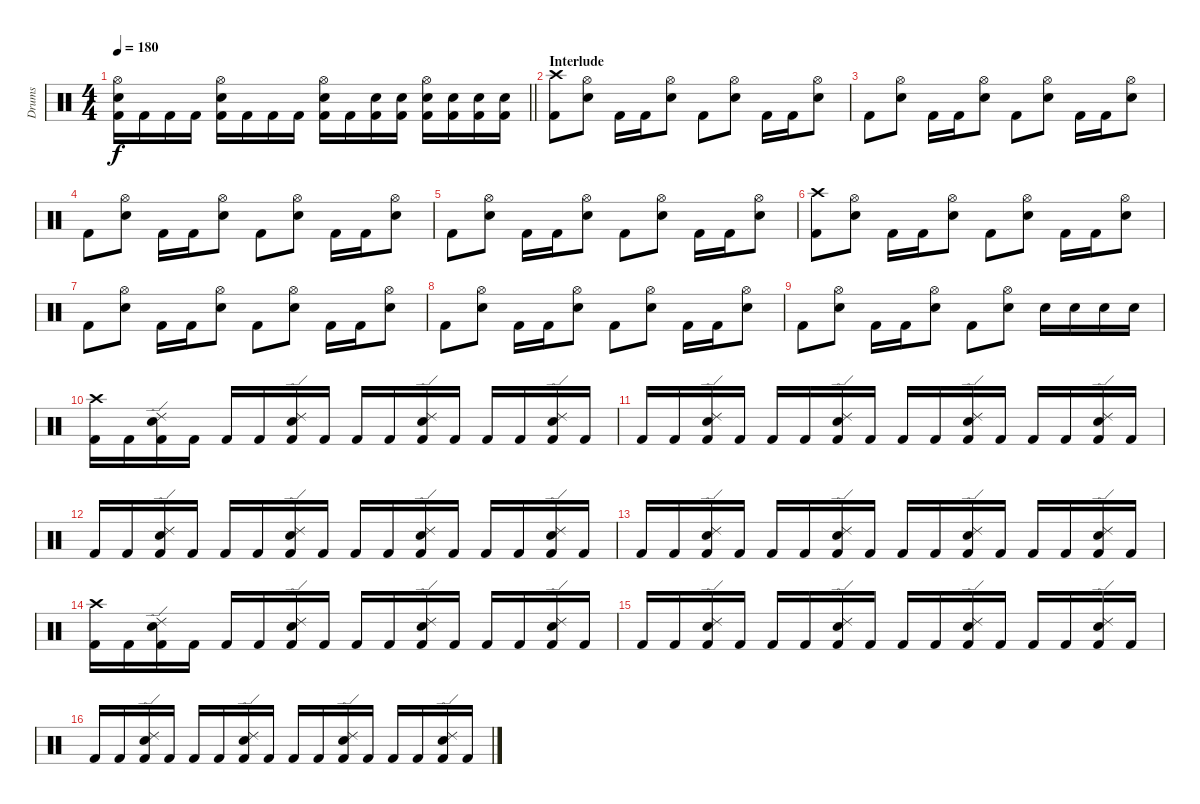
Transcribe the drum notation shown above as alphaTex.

\track ("Drums" "Drums") {instrument percussion}
\staff {score}
\articulation defaults
\ts (4 4)
\tempo 180
\clef neutral
\barLineRight lightlight
\ks c
("Hi-Hat (open)" "Electric Snare (hit)" "Kick (hit) 2").16{dy f} "Kick (hit) 2".16 "Kick (hit) 2".16 "Kick (hit) 2".16 ("Hi-Hat (open)" "Electric Snare (hit)" "Kick (hit) 2").16 "Kick (hit) 2".16 "Kick (hit) 2".16 "Kick (hit) 2".16 ("Hi-Hat (open)" "Electric Snare (hit)" "Kick (hit) 2").16 "Kick (hit) 2".16 ("Electric Snare (hit)" "Kick (hit) 2").16 ("Electric Snare (hit)" "Kick (hit) 2").16 ("Hi-Hat (open)" "Electric Snare (hit)" "Kick (hit) 2").16 ("Electric Snare (hit)" "Kick (hit) 2").16 ("Electric Snare (hit)" "Kick (hit) 2").16 ("Electric Snare (hit)" "Kick (hit) 2").16 |
\section ("" "Interlude")
("Crash high (hit)" "Kick (hit) 2").8 ("Hi-Hat (open)" "Electric Snare (hit)").8 "Kick (hit) 2".16 "Kick (hit) 2".16 ("Hi-Hat (open)" "Electric Snare (hit)").8 "Kick (hit) 2".8 ("Hi-Hat (open)" "Electric Snare (hit)").8 "Kick (hit) 2".16 "Kick (hit) 2".16 ("Hi-Hat (open)" "Electric Snare (hit)").8 |
"Kick (hit) 2".8 ("Hi-Hat (open)" "Electric Snare (hit)").8 "Kick (hit) 2".16 "Kick (hit) 2".16 ("Hi-Hat (open)" "Electric Snare (hit)").8 "Kick (hit) 2".8 ("Hi-Hat (open)" "Electric Snare (hit)").8 "Kick (hit) 2".16 "Kick (hit) 2".16 ("Hi-Hat (open)" "Electric Snare (hit)").8 |
"Kick (hit) 2".8 ("Hi-Hat (open)" "Electric Snare (hit)").8 "Kick (hit) 2".16 "Kick (hit) 2".16 ("Hi-Hat (open)" "Electric Snare (hit)").8 "Kick (hit) 2".8 ("Hi-Hat (open)" "Electric Snare (hit)").8 "Kick (hit) 2".16 "Kick (hit) 2".16 ("Hi-Hat (open)" "Electric Snare (hit)").8 |
"Kick (hit) 2".8 ("Hi-Hat (open)" "Electric Snare (hit)").8 "Kick (hit) 2".16 "Kick (hit) 2".16 ("Hi-Hat (open)" "Electric Snare (hit)").8 "Kick (hit) 2".8 ("Hi-Hat (open)" "Electric Snare (hit)").8 "Kick (hit) 2".16 "Kick (hit) 2".16 ("Hi-Hat (open)" "Electric Snare (hit)").8 |
("Crash high (hit)" "Kick (hit) 2").8 ("Hi-Hat (open)" "Electric Snare (hit)").8 "Kick (hit) 2".16 "Kick (hit) 2".16 ("Hi-Hat (open)" "Electric Snare (hit)").8 "Kick (hit) 2".8 ("Hi-Hat (open)" "Electric Snare (hit)").8 "Kick (hit) 2".16 "Kick (hit) 2".16 ("Hi-Hat (open)" "Electric Snare (hit)").8 |
"Kick (hit) 2".8 ("Hi-Hat (open)" "Electric Snare (hit)").8 "Kick (hit) 2".16 "Kick (hit) 2".16 ("Hi-Hat (open)" "Electric Snare (hit)").8 "Kick (hit) 2".8 ("Hi-Hat (open)" "Electric Snare (hit)").8 "Kick (hit) 2".16 "Kick (hit) 2".16 ("Hi-Hat (open)" "Electric Snare (hit)").8 |
"Kick (hit) 2".8 ("Hi-Hat (open)" "Electric Snare (hit)").8 "Kick (hit) 2".16 "Kick (hit) 2".16 ("Hi-Hat (open)" "Electric Snare (hit)").8 "Kick (hit) 2".8 ("Hi-Hat (open)" "Electric Snare (hit)").8 "Kick (hit) 2".16 "Kick (hit) 2".16 ("Hi-Hat (open)" "Electric Snare (hit)").8 |
"Kick (hit) 2".8 ("Hi-Hat (open)" "Electric Snare (hit)").8 "Kick (hit) 2".16 "Kick (hit) 2".16 ("Hi-Hat (open)" "Electric Snare (hit)").8 "Kick (hit) 2".8 ("Hi-Hat (open)" "Electric Snare (hit)").8 "Electric Snare (hit)".16 "Electric Snare (hit)".16 "Electric Snare (hit)".16 "Electric Snare (hit)".16 |
("Crash high (hit)" "Kick (hit) 2").16 "Kick (hit) 2".16 ("Ride (edge) 2" "Electric Snare (hit)" "Kick (hit) 2").16 "Kick (hit) 2".16 "Kick (hit) 2".16 "Kick (hit) 2".16 ("Ride (edge) 2" "Electric Snare (hit)" "Kick (hit) 2").16 "Kick (hit) 2".16 "Kick (hit) 2".16 "Kick (hit) 2".16 ("Ride (edge) 2" "Electric Snare (hit)" "Kick (hit) 2").16 "Kick (hit) 2".16 "Kick (hit) 2".16 "Kick (hit) 2".16 ("Ride (edge) 2" "Electric Snare (hit)" "Kick (hit) 2").16 "Kick (hit) 2".16 |
"Kick (hit) 2".16 "Kick (hit) 2".16 ("Ride (edge) 2" "Electric Snare (hit)" "Kick (hit) 2").16 "Kick (hit) 2".16 "Kick (hit) 2".16 "Kick (hit) 2".16 ("Ride (edge) 2" "Electric Snare (hit)" "Kick (hit) 2").16 "Kick (hit) 2".16 "Kick (hit) 2".16 "Kick (hit) 2".16 ("Ride (edge) 2" "Electric Snare (hit)" "Kick (hit) 2").16 "Kick (hit) 2".16 "Kick (hit) 2".16 "Kick (hit) 2".16 ("Ride (edge) 2" "Electric Snare (hit)" "Kick (hit) 2").16 "Kick (hit) 2".16 |
"Kick (hit) 2".16 "Kick (hit) 2".16 ("Ride (edge) 2" "Electric Snare (hit)" "Kick (hit) 2").16 "Kick (hit) 2".16 "Kick (hit) 2".16 "Kick (hit) 2".16 ("Ride (edge) 2" "Electric Snare (hit)" "Kick (hit) 2").16 "Kick (hit) 2".16 "Kick (hit) 2".16 "Kick (hit) 2".16 ("Ride (edge) 2" "Electric Snare (hit)" "Kick (hit) 2").16 "Kick (hit) 2".16 "Kick (hit) 2".16 "Kick (hit) 2".16 ("Ride (edge) 2" "Electric Snare (hit)" "Kick (hit) 2").16 "Kick (hit) 2".16 |
"Kick (hit) 2".16 "Kick (hit) 2".16 ("Ride (edge) 2" "Electric Snare (hit)" "Kick (hit) 2").16 "Kick (hit) 2".16 "Kick (hit) 2".16 "Kick (hit) 2".16 ("Ride (edge) 2" "Electric Snare (hit)" "Kick (hit) 2").16 "Kick (hit) 2".16 "Kick (hit) 2".16 "Kick (hit) 2".16 ("Ride (edge) 2" "Electric Snare (hit)" "Kick (hit) 2").16 "Kick (hit) 2".16 "Kick (hit) 2".16 "Kick (hit) 2".16 ("Ride (edge) 2" "Electric Snare (hit)" "Kick (hit) 2").16 "Kick (hit) 2".16 |
("Crash high (hit)" "Kick (hit) 2").16 "Kick (hit) 2".16 ("Ride (edge) 2" "Electric Snare (hit)" "Kick (hit) 2").16 "Kick (hit) 2".16 "Kick (hit) 2".16 "Kick (hit) 2".16 ("Ride (edge) 2" "Electric Snare (hit)" "Kick (hit) 2").16 "Kick (hit) 2".16 "Kick (hit) 2".16 "Kick (hit) 2".16 ("Ride (edge) 2" "Electric Snare (hit)" "Kick (hit) 2").16 "Kick (hit) 2".16 "Kick (hit) 2".16 "Kick (hit) 2".16 ("Ride (edge) 2" "Electric Snare (hit)" "Kick (hit) 2").16 "Kick (hit) 2".16 |
"Kick (hit) 2".16 "Kick (hit) 2".16 ("Ride (edge) 2" "Electric Snare (hit)" "Kick (hit) 2").16 "Kick (hit) 2".16 "Kick (hit) 2".16 "Kick (hit) 2".16 ("Ride (edge) 2" "Electric Snare (hit)" "Kick (hit) 2").16 "Kick (hit) 2".16 "Kick (hit) 2".16 "Kick (hit) 2".16 ("Ride (edge) 2" "Electric Snare (hit)" "Kick (hit) 2").16 "Kick (hit) 2".16 "Kick (hit) 2".16 "Kick (hit) 2".16 ("Ride (edge) 2" "Electric Snare (hit)" "Kick (hit) 2").16 "Kick (hit) 2".16 |
"Kick (hit) 2".16 "Kick (hit) 2".16 ("Ride (edge) 2" "Electric Snare (hit)" "Kick (hit) 2").16 "Kick (hit) 2".16 "Kick (hit) 2".16 "Kick (hit) 2".16 ("Ride (edge) 2" "Electric Snare (hit)" "Kick (hit) 2").16 "Kick (hit) 2".16 "Kick (hit) 2".16 "Kick (hit) 2".16 ("Ride (edge) 2" "Electric Snare (hit)" "Kick (hit) 2").16 "Kick (hit) 2".16 "Kick (hit) 2".16 "Kick (hit) 2".16 ("Ride (edge) 2" "Electric Snare (hit)" "Kick (hit) 2").16 "Kick (hit) 2".16
